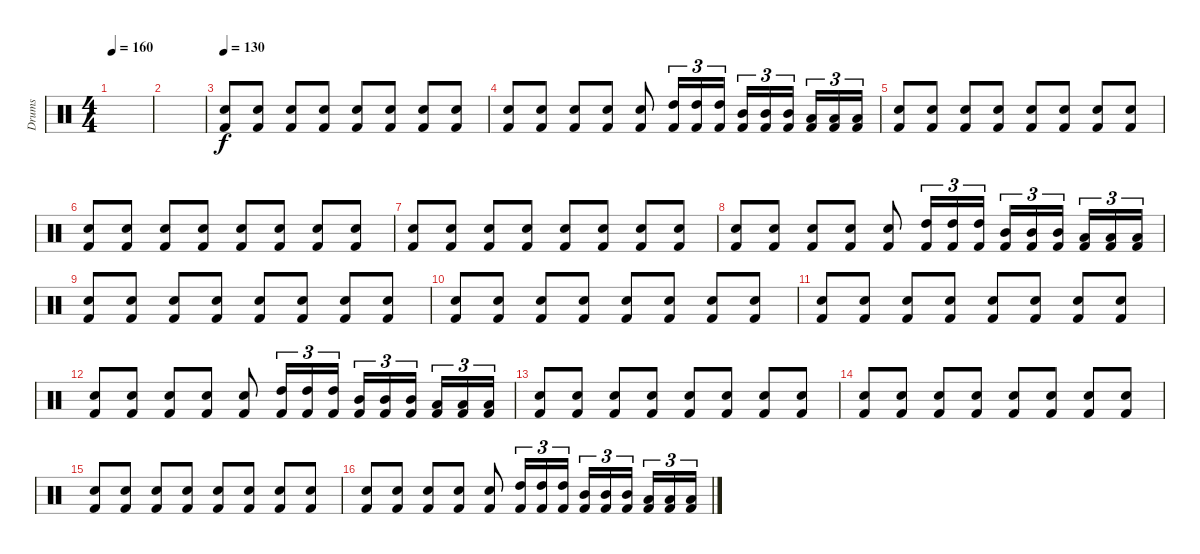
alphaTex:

\track ("Drums" "Drums") {instrument percussion}
\staff {score}
\articulation defaults
\ts (4 4)
\tempo 160
\clef neutral
\ks c
|
|
\tempo 130
("Kick (hit) 2" "Snare (hit) 2").8 ("Kick (hit) 2" "Snare (hit) 2").8 ("Kick (hit) 2" "Snare (hit) 2").8 ("Kick (hit) 2" "Snare (hit) 2").8 ("Kick (hit) 2" "Snare (hit) 2").8 ("Kick (hit) 2" "Snare (hit) 2").8 ("Kick (hit) 2" "Snare (hit) 2").8 ("Kick (hit) 2" "Snare (hit) 2").8 |
("Kick (hit) 2" "Snare (hit) 2").8 ("Kick (hit) 2" "Snare (hit) 2").8 ("Kick (hit) 2" "Snare (hit) 2").8 ("Kick (hit) 2" "Snare (hit) 2").8 ("Kick (hit) 2" "Snare (hit) 2").8 ("Kick (hit) 2" "High Tom (hit)").16{tu (3 2)} ("Kick (hit) 2" "High Tom (hit)").16{tu (3 2)} ("Kick (hit) 2" "High Tom (hit)").16{tu (3 2)} ("Kick (hit) 2" "Mid Tom (hit)").16{tu (3 2)} ("Kick (hit) 2" "Mid Tom (hit)").16{tu (3 2)} ("Kick (hit) 2" "Mid Tom (hit)").16{tu (3 2)} ("Kick (hit) 2" "Low Tom (hit)").16{tu (3 2)} ("Kick (hit) 2" "Low Tom (hit)").16{tu (3 2)} ("Kick (hit) 2" "Low Tom (hit)").16{tu (3 2)} |
("Kick (hit) 2" "Snare (hit) 2").8 ("Kick (hit) 2" "Snare (hit) 2").8 ("Kick (hit) 2" "Snare (hit) 2").8 ("Kick (hit) 2" "Snare (hit) 2").8 ("Kick (hit) 2" "Snare (hit) 2").8 ("Kick (hit) 2" "Snare (hit) 2").8 ("Kick (hit) 2" "Snare (hit) 2").8 ("Kick (hit) 2" "Snare (hit) 2").8 |
("Kick (hit) 2" "Snare (hit) 2").8 ("Kick (hit) 2" "Snare (hit) 2").8 ("Kick (hit) 2" "Snare (hit) 2").8 ("Kick (hit) 2" "Snare (hit) 2").8 ("Kick (hit) 2" "Snare (hit) 2").8 ("Kick (hit) 2" "Snare (hit) 2").8 ("Kick (hit) 2" "Snare (hit) 2").8 ("Kick (hit) 2" "Snare (hit) 2").8 |
("Kick (hit) 2" "Snare (hit) 2").8 ("Kick (hit) 2" "Snare (hit) 2").8 ("Kick (hit) 2" "Snare (hit) 2").8 ("Kick (hit) 2" "Snare (hit) 2").8 ("Kick (hit) 2" "Snare (hit) 2").8 ("Kick (hit) 2" "Snare (hit) 2").8 ("Kick (hit) 2" "Snare (hit) 2").8 ("Kick (hit) 2" "Snare (hit) 2").8 |
("Kick (hit) 2" "Snare (hit) 2").8 ("Kick (hit) 2" "Snare (hit) 2").8 ("Kick (hit) 2" "Snare (hit) 2").8 ("Kick (hit) 2" "Snare (hit) 2").8 ("Kick (hit) 2" "Snare (hit) 2").8 ("Kick (hit) 2" "High Tom (hit)").16{tu (3 2)} ("Kick (hit) 2" "High Tom (hit)").16{tu (3 2)} ("Kick (hit) 2" "High Tom (hit)").16{tu (3 2)} ("Kick (hit) 2" "Mid Tom (hit)").16{tu (3 2)} ("Kick (hit) 2" "Mid Tom (hit)").16{tu (3 2)} ("Kick (hit) 2" "Mid Tom (hit)").16{tu (3 2)} ("Kick (hit) 2" "Low Tom (hit)").16{tu (3 2)} ("Kick (hit) 2" "Low Tom (hit)").16{tu (3 2)} ("Kick (hit) 2" "Low Tom (hit)").16{tu (3 2)} |
("Kick (hit) 2" "Snare (hit) 2").8 ("Kick (hit) 2" "Snare (hit) 2").8 ("Kick (hit) 2" "Snare (hit) 2").8 ("Kick (hit) 2" "Snare (hit) 2").8 ("Kick (hit) 2" "Snare (hit) 2").8 ("Kick (hit) 2" "Snare (hit) 2").8 ("Kick (hit) 2" "Snare (hit) 2").8 ("Kick (hit) 2" "Snare (hit) 2").8 |
("Kick (hit) 2" "Snare (hit) 2").8 ("Kick (hit) 2" "Snare (hit) 2").8 ("Kick (hit) 2" "Snare (hit) 2").8 ("Kick (hit) 2" "Snare (hit) 2").8 ("Kick (hit) 2" "Snare (hit) 2").8 ("Kick (hit) 2" "Snare (hit) 2").8 ("Kick (hit) 2" "Snare (hit) 2").8 ("Kick (hit) 2" "Snare (hit) 2").8 |
("Kick (hit) 2" "Snare (hit) 2").8 ("Kick (hit) 2" "Snare (hit) 2").8 ("Kick (hit) 2" "Snare (hit) 2").8 ("Kick (hit) 2" "Snare (hit) 2").8 ("Kick (hit) 2" "Snare (hit) 2").8 ("Kick (hit) 2" "Snare (hit) 2").8 ("Kick (hit) 2" "Snare (hit) 2").8 ("Kick (hit) 2" "Snare (hit) 2").8 |
("Kick (hit) 2" "Snare (hit) 2").8 ("Kick (hit) 2" "Snare (hit) 2").8 ("Kick (hit) 2" "Snare (hit) 2").8 ("Kick (hit) 2" "Snare (hit) 2").8 ("Kick (hit) 2" "Snare (hit) 2").8 ("Kick (hit) 2" "High Tom (hit)").16{tu (3 2)} ("Kick (hit) 2" "High Tom (hit)").16{tu (3 2)} ("Kick (hit) 2" "High Tom (hit)").16{tu (3 2)} ("Kick (hit) 2" "Mid Tom (hit)").16{tu (3 2)} ("Kick (hit) 2" "Mid Tom (hit)").16{tu (3 2)} ("Kick (hit) 2" "Mid Tom (hit)").16{tu (3 2)} ("Kick (hit) 2" "Low Tom (hit)").16{tu (3 2)} ("Kick (hit) 2" "Low Tom (hit)").16{tu (3 2)} ("Kick (hit) 2" "Low Tom (hit)").16{tu (3 2)} |
("Kick (hit) 2" "Snare (hit) 2").8 ("Kick (hit) 2" "Snare (hit) 2").8 ("Kick (hit) 2" "Snare (hit) 2").8 ("Kick (hit) 2" "Snare (hit) 2").8 ("Kick (hit) 2" "Snare (hit) 2").8 ("Kick (hit) 2" "Snare (hit) 2").8 ("Kick (hit) 2" "Snare (hit) 2").8 ("Kick (hit) 2" "Snare (hit) 2").8 |
("Kick (hit) 2" "Snare (hit) 2").8 ("Kick (hit) 2" "Snare (hit) 2").8 ("Kick (hit) 2" "Snare (hit) 2").8 ("Kick (hit) 2" "Snare (hit) 2").8 ("Kick (hit) 2" "Snare (hit) 2").8 ("Kick (hit) 2" "Snare (hit) 2").8 ("Kick (hit) 2" "Snare (hit) 2").8 ("Kick (hit) 2" "Snare (hit) 2").8 |
("Kick (hit) 2" "Snare (hit) 2").8 ("Kick (hit) 2" "Snare (hit) 2").8 ("Kick (hit) 2" "Snare (hit) 2").8 ("Kick (hit) 2" "Snare (hit) 2").8 ("Kick (hit) 2" "Snare (hit) 2").8 ("Kick (hit) 2" "Snare (hit) 2").8 ("Kick (hit) 2" "Snare (hit) 2").8 ("Kick (hit) 2" "Snare (hit) 2").8 |
("Kick (hit) 2" "Snare (hit) 2").8 ("Kick (hit) 2" "Snare (hit) 2").8 ("Kick (hit) 2" "Snare (hit) 2").8 ("Kick (hit) 2" "Snare (hit) 2").8 ("Kick (hit) 2" "Snare (hit) 2").8 ("Kick (hit) 2" "High Tom (hit)").16{tu (3 2)} ("Kick (hit) 2" "High Tom (hit)").16{tu (3 2)} ("Kick (hit) 2" "High Tom (hit)").16{tu (3 2)} ("Kick (hit) 2" "Mid Tom (hit)").16{tu (3 2)} ("Kick (hit) 2" "Mid Tom (hit)").16{tu (3 2)} ("Kick (hit) 2" "Mid Tom (hit)").16{tu (3 2)} ("Kick (hit) 2" "Low Tom (hit)").16{tu (3 2)} ("Kick (hit) 2" "Low Tom (hit)").16{tu (3 2)} ("Kick (hit) 2" "Low Tom (hit)").16{tu (3 2)}
